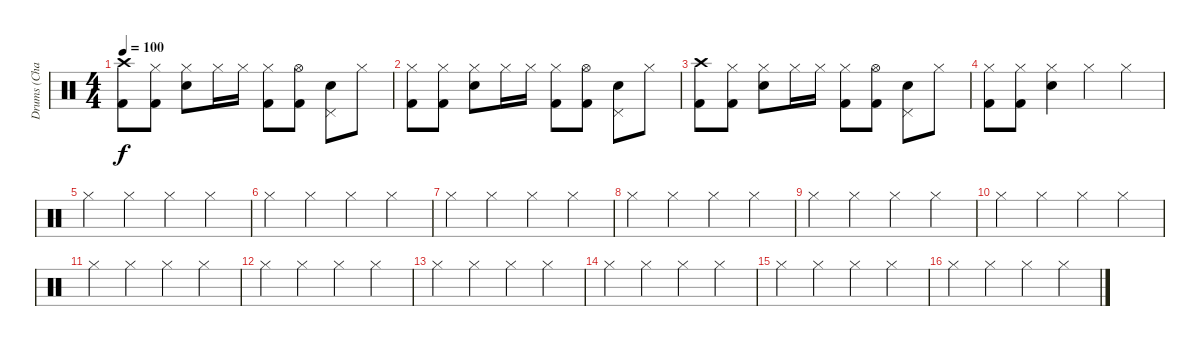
\track ("Drums (Charlie)" "Drums (Cha") {instrument percussion}
\staff {score}
\articulation defaults
\ts (4 4)
\tempo 100
\clef neutral
\ks c
("Crash high (hit)" "Kick (hit) 2").8{dy f} ("Hi-Hat (closed)" "Kick (hit) 2").8 ("Hi-Hat (closed)" "Electric Snare (hit)").8 "Hi-Hat (closed)".16 "Hi-Hat (closed)".16 ("Hi-Hat (closed)" "Kick (hit) 2").8 ("Hi-Hat (open)" "Kick (hit) 2").8 ("Pedal Hi-Hat (hit)" "Electric Snare (hit)").8 "Hi-Hat (closed)".8 |
("Hi-Hat (closed)" "Kick (hit) 2").8 ("Hi-Hat (closed)" "Kick (hit) 2").8 ("Hi-Hat (closed)" "Electric Snare (hit)").8 "Hi-Hat (closed)".16 "Hi-Hat (closed)".16 ("Hi-Hat (closed)" "Kick (hit) 2").8 ("Hi-Hat (open)" "Kick (hit) 2").8 ("Pedal Hi-Hat (hit)" "Electric Snare (hit)").8 "Hi-Hat (closed)".8 |
("Crash high (hit)" "Kick (hit) 2").8 ("Hi-Hat (closed)" "Kick (hit) 2").8 ("Hi-Hat (closed)" "Electric Snare (hit)").8 "Hi-Hat (closed)".16 "Hi-Hat (closed)".16 ("Hi-Hat (closed)" "Kick (hit) 2").8 ("Hi-Hat (open)" "Kick (hit) 2").8 ("Pedal Hi-Hat (hit)" "Electric Snare (hit)").8 "Hi-Hat (closed)".8 |
("Hi-Hat (closed)" "Kick (hit) 2").8 ("Hi-Hat (closed)" "Kick (hit) 2").8 ("Hi-Hat (closed)" "Snare (hit) 2").4 "Hi-Hat (closed)".4 "Hi-Hat (closed)".4 |
"Hi-Hat (closed)".4 "Hi-Hat (closed)".4 "Hi-Hat (closed)".4 "Hi-Hat (closed)".4 |
"Hi-Hat (closed)".4 "Hi-Hat (closed)".4 "Hi-Hat (closed)".4 "Hi-Hat (closed)".4 |
"Hi-Hat (closed)".4 "Hi-Hat (closed)".4 "Hi-Hat (closed)".4 "Hi-Hat (closed)".4 |
"Hi-Hat (closed)".4 "Hi-Hat (closed)".4 "Hi-Hat (closed)".4 "Hi-Hat (closed)".4 |
"Hi-Hat (closed)".4 "Hi-Hat (closed)".4 "Hi-Hat (closed)".4 "Hi-Hat (closed)".4 |
"Hi-Hat (closed)".4 "Hi-Hat (closed)".4 "Hi-Hat (closed)".4 "Hi-Hat (closed)".4 |
"Hi-Hat (closed)".4 "Hi-Hat (closed)".4 "Hi-Hat (closed)".4 "Hi-Hat (closed)".4 |
"Hi-Hat (closed)".4 "Hi-Hat (closed)".4 "Hi-Hat (closed)".4 "Hi-Hat (closed)".4 |
"Hi-Hat (closed)".4 "Hi-Hat (closed)".4 "Hi-Hat (closed)".4 "Hi-Hat (closed)".4 |
"Hi-Hat (closed)".4 "Hi-Hat (closed)".4 "Hi-Hat (closed)".4 "Hi-Hat (closed)".4 |
"Hi-Hat (closed)".4 "Hi-Hat (closed)".4 "Hi-Hat (closed)".4 "Hi-Hat (closed)".4 |
"Hi-Hat (closed)".4 "Hi-Hat (closed)".4 "Hi-Hat (closed)".4 "Hi-Hat (closed)".4
